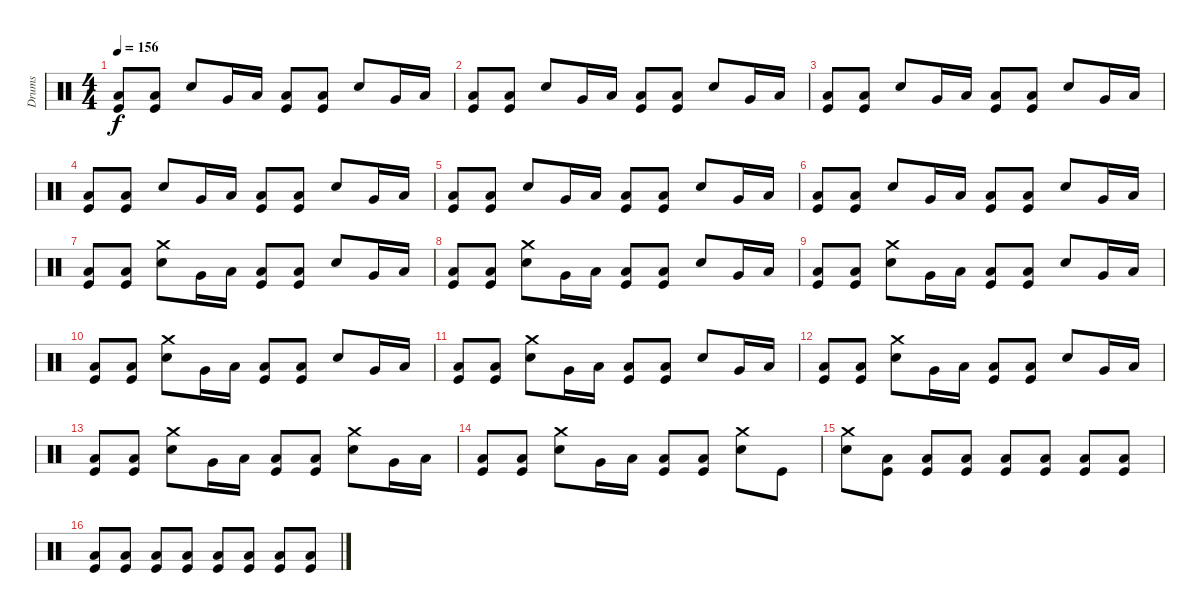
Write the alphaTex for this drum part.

\track ("Drums" "Drums") {instrument percussion}
\staff {score}
\articulation defaults
\ts (4 4)
\tempo 156
\clef neutral
\ks c
("Low Floor Tom (hit)" "Kick (hit)").8{dy f} ("Low Floor Tom (hit)" "Kick (hit)").8 "Electric Snare (hit)".8 "Very Low Tom (hit)".16 "Low Floor Tom (hit)".16 ("Low Floor Tom (hit)" "Kick (hit)").8 ("Low Floor Tom (hit)" "Kick (hit)").8 "Electric Snare (hit)".8 "Very Low Tom (hit)".16 "Low Floor Tom (hit)".16 |
("Low Floor Tom (hit)" "Kick (hit)").8 ("Low Floor Tom (hit)" "Kick (hit)").8 "Electric Snare (hit)".8 "Very Low Tom (hit)".16 "Low Floor Tom (hit)".16 ("Low Floor Tom (hit)" "Kick (hit)").8 ("Low Floor Tom (hit)" "Kick (hit)").8 "Electric Snare (hit)".8 "Very Low Tom (hit)".16 "Low Floor Tom (hit)".16 |
("Low Floor Tom (hit)" "Kick (hit)").8 ("Low Floor Tom (hit)" "Kick (hit)").8 "Electric Snare (hit)".8 "Very Low Tom (hit)".16 "Low Floor Tom (hit)".16 ("Low Floor Tom (hit)" "Kick (hit)").8 ("Low Floor Tom (hit)" "Kick (hit)").8 "Electric Snare (hit)".8 "Very Low Tom (hit)".16 "Low Floor Tom (hit)".16 |
("Low Floor Tom (hit)" "Kick (hit)").8 ("Low Floor Tom (hit)" "Kick (hit)").8 "Electric Snare (hit)".8 "Very Low Tom (hit)".16 "Low Floor Tom (hit)".16 ("Low Floor Tom (hit)" "Kick (hit)").8 ("Low Floor Tom (hit)" "Kick (hit)").8 "Electric Snare (hit)".8 "Very Low Tom (hit)".16 "Low Floor Tom (hit)".16 |
("Low Floor Tom (hit)" "Kick (hit)").8 ("Low Floor Tom (hit)" "Kick (hit)").8 "Electric Snare (hit)".8 "Very Low Tom (hit)".16 "Low Floor Tom (hit)".16 ("Low Floor Tom (hit)" "Kick (hit)").8 ("Low Floor Tom (hit)" "Kick (hit)").8 "Electric Snare (hit)".8 "Very Low Tom (hit)".16 "Low Floor Tom (hit)".16 |
("Low Floor Tom (hit)" "Kick (hit)").8 ("Low Floor Tom (hit)" "Kick (hit)").8 "Electric Snare (hit)".8 "Very Low Tom (hit)".16 "Low Floor Tom (hit)".16 ("Low Floor Tom (hit)" "Kick (hit)").8 ("Low Floor Tom (hit)" "Kick (hit)").8 "Electric Snare (hit)".8 "Very Low Tom (hit)".16 "Low Floor Tom (hit)".16 |
("Low Floor Tom (hit)" "Kick (hit)").8 ("Low Floor Tom (hit)" "Kick (hit)").8 ("Crash medium (hit)" "Electric Snare (hit)").8 "Very Low Tom (hit)".16 "Low Floor Tom (hit)".16 ("Low Floor Tom (hit)" "Kick (hit)").8 ("Low Floor Tom (hit)" "Kick (hit)").8 "Electric Snare (hit)".8 "Very Low Tom (hit)".16 "Low Floor Tom (hit)".16 |
("Low Floor Tom (hit)" "Kick (hit)").8 ("Low Floor Tom (hit)" "Kick (hit)").8 ("Crash medium (hit)" "Electric Snare (hit)").8 "Very Low Tom (hit)".16 "Low Floor Tom (hit)".16 ("Low Floor Tom (hit)" "Kick (hit)").8 ("Low Floor Tom (hit)" "Kick (hit)").8 "Electric Snare (hit)".8 "Very Low Tom (hit)".16 "Low Floor Tom (hit)".16 |
("Low Floor Tom (hit)" "Kick (hit)").8 ("Low Floor Tom (hit)" "Kick (hit)").8 ("Crash medium (hit)" "Electric Snare (hit)").8 "Very Low Tom (hit)".16 "Low Floor Tom (hit)".16 ("Low Floor Tom (hit)" "Kick (hit)").8 ("Low Floor Tom (hit)" "Kick (hit)").8 "Electric Snare (hit)".8 "Very Low Tom (hit)".16 "Low Floor Tom (hit)".16 |
("Low Floor Tom (hit)" "Kick (hit)").8 ("Low Floor Tom (hit)" "Kick (hit)").8 ("Crash medium (hit)" "Electric Snare (hit)").8 "Very Low Tom (hit)".16 "Low Floor Tom (hit)".16 ("Low Floor Tom (hit)" "Kick (hit)").8 ("Low Floor Tom (hit)" "Kick (hit)").8 "Electric Snare (hit)".8 "Very Low Tom (hit)".16 "Low Floor Tom (hit)".16 |
("Low Floor Tom (hit)" "Kick (hit)").8 ("Low Floor Tom (hit)" "Kick (hit)").8 ("Crash medium (hit)" "Electric Snare (hit)").8 "Very Low Tom (hit)".16 "Low Floor Tom (hit)".16 ("Low Floor Tom (hit)" "Kick (hit)").8 ("Low Floor Tom (hit)" "Kick (hit)").8 "Electric Snare (hit)".8 "Very Low Tom (hit)".16 "Low Floor Tom (hit)".16 |
("Low Floor Tom (hit)" "Kick (hit)").8 ("Low Floor Tom (hit)" "Kick (hit)").8 ("Crash medium (hit)" "Electric Snare (hit)").8 "Very Low Tom (hit)".16 "Low Floor Tom (hit)".16 ("Low Floor Tom (hit)" "Kick (hit)").8 ("Low Floor Tom (hit)" "Kick (hit)").8 "Electric Snare (hit)".8 "Very Low Tom (hit)".16 "Low Floor Tom (hit)".16 |
("Low Floor Tom (hit)" "Kick (hit)").8 ("Low Floor Tom (hit)" "Kick (hit)").8 ("Crash medium (hit)" "Electric Snare (hit)").8 "Very Low Tom (hit)".16 "Low Floor Tom (hit)".16 ("Low Floor Tom (hit)" "Kick (hit)").8 ("Low Floor Tom (hit)" "Kick (hit)").8 ("Crash medium (hit)" "Electric Snare (hit)").8 "Very Low Tom (hit)".16 "Low Floor Tom (hit)".16 |
("Low Floor Tom (hit)" "Kick (hit)").8 ("Low Floor Tom (hit)" "Kick (hit)").8 ("Crash medium (hit)" "Electric Snare (hit)").8 "Very Low Tom (hit)".16 "Low Floor Tom (hit)".16 ("Low Floor Tom (hit)" "Kick (hit)").8 ("Low Floor Tom (hit)" "Kick (hit)").8 ("Crash medium (hit)" "Electric Snare (hit)").8 "Kick (hit)".8 |
("Electric Snare (hit)" "Crash medium (hit)").8 ("Low Floor Tom (hit)" "Kick (hit)").8 ("Low Floor Tom (hit)" "Kick (hit)").8 ("Low Floor Tom (hit)" "Kick (hit)").8 ("Low Floor Tom (hit)" "Kick (hit)").8 ("Low Floor Tom (hit)" "Kick (hit)").8 ("Low Floor Tom (hit)" "Kick (hit)").8 ("Low Floor Tom (hit)" "Kick (hit)").8 |
("Kick (hit)" "Low Floor Tom (hit)").8 ("Low Floor Tom (hit)" "Kick (hit)").8 ("Low Floor Tom (hit)" "Kick (hit)").8 ("Low Floor Tom (hit)" "Kick (hit)").8 ("Low Floor Tom (hit)" "Kick (hit)").8 ("Low Floor Tom (hit)" "Kick (hit)").8 ("Low Floor Tom (hit)" "Kick (hit)").8 ("Low Floor Tom (hit)" "Kick (hit)").8
